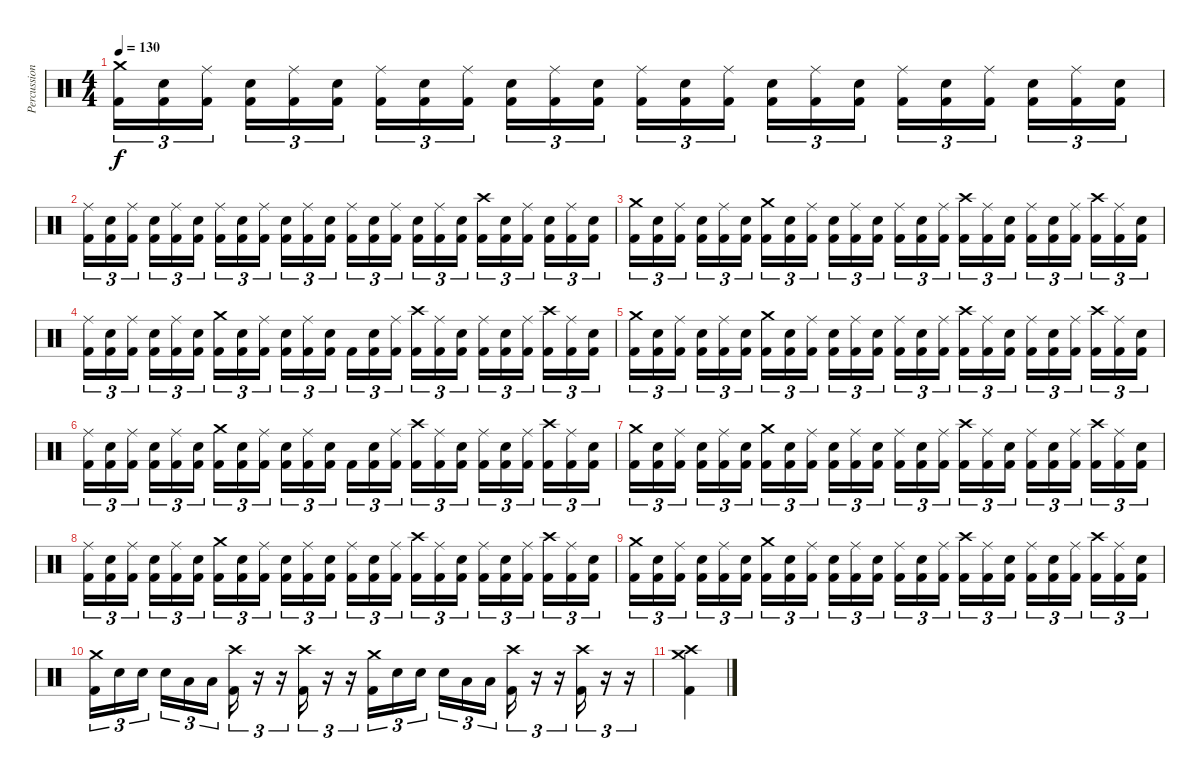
\track ("Percussion" "Percussion") {instrument percussion}
\staff {score}
\articulation defaults
\ts (4 4)
\tempo 130
\clef neutral
\ks c
("Kick (hit) 2" "Crash medium (hit)").16{tu (3 2) dy f} ("Kick (hit) 2" "Electric Snare (hit)").16{tu (3 2)} ("Kick (hit) 2" "Ride (middle)").16{tu (3 2)} ("Kick (hit) 2" "Electric Snare (hit)").16{tu (3 2)} ("Kick (hit) 2" "Ride (middle)").16{tu (3 2)} ("Kick (hit) 2" "Electric Snare (hit)").16{tu (3 2)} ("Kick (hit) 2" "Ride (middle)").16{tu (3 2)} ("Kick (hit) 2" "Electric Snare (hit)").16{tu (3 2)} ("Kick (hit) 2" "Ride (middle)").16{tu (3 2)} ("Kick (hit) 2" "Electric Snare (hit)").16{tu (3 2)} ("Kick (hit) 2" "Ride (middle)").16{tu (3 2)} ("Kick (hit) 2" "Electric Snare (hit)").16{tu (3 2)} ("Kick (hit) 2" "Ride (middle)").16{tu (3 2)} ("Kick (hit) 2" "Electric Snare (hit)").16{tu (3 2)} ("Kick (hit) 2" "Ride (middle)").16{tu (3 2)} ("Kick (hit) 2" "Electric Snare (hit)").16{tu (3 2)} ("Kick (hit) 2" "Ride (middle)").16{tu (3 2)} ("Kick (hit) 2" "Electric Snare (hit)").16{tu (3 2)} ("Kick (hit) 2" "Ride (middle)").16{tu (3 2)} ("Kick (hit) 2" "Electric Snare (hit)").16{tu (3 2)} ("Kick (hit) 2" "Ride (middle)").16{tu (3 2)} ("Kick (hit) 2" "Electric Snare (hit)").16{tu (3 2)} ("Kick (hit) 2" "Ride (middle)").16{tu (3 2)} ("Kick (hit) 2" "Electric Snare (hit)").16{tu (3 2)} |
("Kick (hit) 2" "Ride (middle)").16{tu (3 2)} ("Kick (hit) 2" "Electric Snare (hit)").16{tu (3 2)} ("Kick (hit) 2" "Ride (middle)").16{tu (3 2)} ("Kick (hit) 2" "Electric Snare (hit)").16{tu (3 2)} ("Kick (hit) 2" "Ride (middle)").16{tu (3 2)} ("Kick (hit) 2" "Electric Snare (hit)").16{tu (3 2)} ("Kick (hit) 2" "Ride (middle)").16{tu (3 2)} ("Kick (hit) 2" "Electric Snare (hit)").16{tu (3 2)} ("Kick (hit) 2" "Ride (middle)").16{tu (3 2)} ("Kick (hit) 2" "Electric Snare (hit)").16{tu (3 2)} ("Kick (hit) 2" "Ride (middle)").16{tu (3 2)} ("Kick (hit) 2" "Electric Snare (hit)").16{tu (3 2)} ("Kick (hit) 2" "Ride (middle)").16{tu (3 2)} ("Kick (hit) 2" "Electric Snare (hit)").16{tu (3 2)} ("Kick (hit) 2" "Ride (middle)").16{tu (3 2)} ("Kick (hit) 2" "Electric Snare (hit)").16{tu (3 2)} ("Kick (hit) 2" "Ride (middle)").16{tu (3 2)} ("Kick (hit) 2" "Electric Snare (hit)").16{tu (3 2)} ("Kick (hit) 2" "Crash high (hit)").16{tu (3 2)} ("Kick (hit) 2" "Electric Snare (hit)").16{tu (3 2)} ("Kick (hit) 2" "Ride (middle)").16{tu (3 2)} ("Kick (hit) 2" "Electric Snare (hit)").16{tu (3 2)} ("Kick (hit) 2" "Ride (middle)").16{tu (3 2)} ("Kick (hit) 2" "Electric Snare (hit)").16{tu (3 2)} |
("Kick (hit) 2" "Crash medium (hit)").16{tu (3 2)} ("Kick (hit) 2" "Electric Snare (hit)").16{tu (3 2)} ("Kick (hit) 2" "Ride (middle)").16{tu (3 2)} ("Kick (hit) 2" "Electric Snare (hit)").16{tu (3 2)} ("Kick (hit) 2" "Ride (middle)").16{tu (3 2)} ("Kick (hit) 2" "Electric Snare (hit)").16{tu (3 2)} ("Kick (hit) 2" "Crash medium (hit)").16{tu (3 2)} ("Kick (hit) 2" "Electric Snare (hit)").16{tu (3 2)} ("Kick (hit) 2" "Ride (middle)").16{tu (3 2)} ("Kick (hit) 2" "Electric Snare (hit)").16{tu (3 2)} ("Kick (hit) 2" "Ride (middle)").16{tu (3 2)} ("Kick (hit) 2" "Electric Snare (hit)").16{tu (3 2)} ("Kick (hit) 2" "Ride (middle)").16{tu (3 2)} ("Kick (hit) 2" "Electric Snare (hit)").16{tu (3 2)} ("Kick (hit) 2" "Ride (middle)").16{tu (3 2)} ("Kick (hit) 2" "Crash high (hit)").16{tu (3 2)} ("Kick (hit) 2" "Ride (middle)").16{tu (3 2)} ("Kick (hit) 2" "Electric Snare (hit)").16{tu (3 2)} ("Kick (hit) 2" "Ride (middle)").16{tu (3 2)} ("Kick (hit) 2" "Electric Snare (hit)").16{tu (3 2)} ("Kick (hit) 2" "Ride (middle)").16{tu (3 2)} ("Kick (hit) 2" "Crash high (hit)").16{tu (3 2)} ("Kick (hit) 2" "Ride (middle)").16{tu (3 2)} ("Kick (hit) 2" "Electric Snare (hit)").16{tu (3 2)} |
("Kick (hit) 2" "Ride (middle)").16{tu (3 2)} ("Kick (hit) 2" "Electric Snare (hit)").16{tu (3 2)} ("Kick (hit) 2" "Ride (middle)").16{tu (3 2)} ("Kick (hit) 2" "Electric Snare (hit)").16{tu (3 2)} ("Kick (hit) 2" "Ride (middle)").16{tu (3 2)} ("Kick (hit) 2" "Electric Snare (hit)").16{tu (3 2)} ("Kick (hit) 2" "Crash medium (hit)").16{tu (3 2)} ("Kick (hit) 2" "Electric Snare (hit)").16{tu (3 2)} ("Kick (hit) 2" "Ride (middle)").16{tu (3 2)} ("Kick (hit) 2" "Electric Snare (hit)").16{tu (3 2)} ("Kick (hit) 2" "Ride (middle)").16{tu (3 2)} ("Kick (hit) 2" "Electric Snare (hit)").16{tu (3 2)} "Kick (hit) 2".16{tu (3 2)} ("Kick (hit) 2" "Electric Snare (hit)").16{tu (3 2)} ("Kick (hit) 2" "Ride (middle)").16{tu (3 2)} ("Kick (hit) 2" "Crash high (hit)").16{tu (3 2)} ("Kick (hit) 2" "Ride (middle)").16{tu (3 2)} ("Kick (hit) 2" "Electric Snare (hit)").16{tu (3 2)} ("Kick (hit) 2" "Ride (middle)").16{tu (3 2)} ("Kick (hit) 2" "Electric Snare (hit)").16{tu (3 2)} ("Kick (hit) 2" "Ride (middle)").16{tu (3 2)} ("Kick (hit) 2" "Crash high (hit)").16{tu (3 2)} ("Kick (hit) 2" "Ride (middle)").16{tu (3 2)} ("Kick (hit) 2" "Electric Snare (hit)").16{tu (3 2)} |
("Kick (hit) 2" "Crash medium (hit)").16{tu (3 2)} ("Kick (hit) 2" "Electric Snare (hit)").16{tu (3 2)} ("Kick (hit) 2" "Ride (middle)").16{tu (3 2)} ("Kick (hit) 2" "Electric Snare (hit)").16{tu (3 2)} ("Kick (hit) 2" "Ride (middle)").16{tu (3 2)} ("Kick (hit) 2" "Electric Snare (hit)").16{tu (3 2)} ("Kick (hit) 2" "Crash medium (hit)").16{tu (3 2)} ("Kick (hit) 2" "Electric Snare (hit)").16{tu (3 2)} ("Kick (hit) 2" "Ride (middle)").16{tu (3 2)} ("Kick (hit) 2" "Electric Snare (hit)").16{tu (3 2)} ("Kick (hit) 2" "Ride (middle)").16{tu (3 2)} ("Kick (hit) 2" "Electric Snare (hit)").16{tu (3 2)} ("Kick (hit) 2" "Ride (middle)").16{tu (3 2)} ("Kick (hit) 2" "Electric Snare (hit)").16{tu (3 2)} ("Kick (hit) 2" "Ride (middle)").16{tu (3 2)} ("Kick (hit) 2" "Crash high (hit)").16{tu (3 2)} ("Kick (hit) 2" "Ride (middle)").16{tu (3 2)} ("Kick (hit) 2" "Electric Snare (hit)").16{tu (3 2)} ("Kick (hit) 2" "Ride (middle)").16{tu (3 2)} ("Kick (hit) 2" "Electric Snare (hit)").16{tu (3 2)} ("Kick (hit) 2" "Ride (middle)").16{tu (3 2)} ("Kick (hit) 2" "Crash high (hit)").16{tu (3 2)} ("Kick (hit) 2" "Ride (middle)").16{tu (3 2)} ("Kick (hit) 2" "Electric Snare (hit)").16{tu (3 2)} |
("Kick (hit) 2" "Ride (middle)").16{tu (3 2)} ("Kick (hit) 2" "Electric Snare (hit)").16{tu (3 2)} ("Kick (hit) 2" "Ride (middle)").16{tu (3 2)} ("Kick (hit) 2" "Electric Snare (hit)").16{tu (3 2)} ("Kick (hit) 2" "Ride (middle)").16{tu (3 2)} ("Kick (hit) 2" "Electric Snare (hit)").16{tu (3 2)} ("Kick (hit) 2" "Crash medium (hit)").16{tu (3 2)} ("Kick (hit) 2" "Electric Snare (hit)").16{tu (3 2)} ("Kick (hit) 2" "Ride (middle)").16{tu (3 2)} ("Kick (hit) 2" "Electric Snare (hit)").16{tu (3 2)} ("Kick (hit) 2" "Ride (middle)").16{tu (3 2)} ("Kick (hit) 2" "Electric Snare (hit)").16{tu (3 2)} "Kick (hit) 2".16{tu (3 2)} ("Kick (hit) 2" "Electric Snare (hit)").16{tu (3 2)} ("Kick (hit) 2" "Ride (middle)").16{tu (3 2)} ("Kick (hit) 2" "Crash high (hit)").16{tu (3 2)} ("Kick (hit) 2" "Ride (middle)").16{tu (3 2)} ("Kick (hit) 2" "Electric Snare (hit)").16{tu (3 2)} ("Kick (hit) 2" "Ride (middle)").16{tu (3 2)} ("Kick (hit) 2" "Electric Snare (hit)").16{tu (3 2)} ("Kick (hit) 2" "Ride (middle)").16{tu (3 2)} ("Kick (hit) 2" "Crash high (hit)").16{tu (3 2)} ("Kick (hit) 2" "Ride (middle)").16{tu (3 2)} ("Kick (hit) 2" "Electric Snare (hit)").16{tu (3 2)} |
("Kick (hit) 2" "Crash medium (hit)").16{tu (3 2)} ("Kick (hit) 2" "Electric Snare (hit)").16{tu (3 2)} ("Kick (hit) 2" "Ride (middle)").16{tu (3 2)} ("Kick (hit) 2" "Electric Snare (hit)").16{tu (3 2)} ("Kick (hit) 2" "Ride (middle)").16{tu (3 2)} ("Kick (hit) 2" "Electric Snare (hit)").16{tu (3 2)} ("Kick (hit) 2" "Crash medium (hit)").16{tu (3 2)} ("Kick (hit) 2" "Electric Snare (hit)").16{tu (3 2)} ("Kick (hit) 2" "Ride (middle)").16{tu (3 2)} ("Kick (hit) 2" "Electric Snare (hit)").16{tu (3 2)} ("Kick (hit) 2" "Ride (middle)").16{tu (3 2)} ("Kick (hit) 2" "Electric Snare (hit)").16{tu (3 2)} ("Kick (hit) 2" "Ride (middle)").16{tu (3 2)} ("Kick (hit) 2" "Electric Snare (hit)").16{tu (3 2)} ("Kick (hit) 2" "Ride (middle)").16{tu (3 2)} ("Kick (hit) 2" "Crash high (hit)").16{tu (3 2)} ("Kick (hit) 2" "Ride (middle)").16{tu (3 2)} ("Kick (hit) 2" "Electric Snare (hit)").16{tu (3 2)} ("Kick (hit) 2" "Ride (middle)").16{tu (3 2)} ("Kick (hit) 2" "Electric Snare (hit)").16{tu (3 2)} ("Kick (hit) 2" "Ride (middle)").16{tu (3 2)} ("Kick (hit) 2" "Crash high (hit)").16{tu (3 2)} ("Kick (hit) 2" "Ride (middle)").16{tu (3 2)} ("Kick (hit) 2" "Electric Snare (hit)").16{tu (3 2)} |
("Kick (hit) 2" "Ride (middle)").16{tu (3 2)} ("Kick (hit) 2" "Electric Snare (hit)").16{tu (3 2)} ("Kick (hit) 2" "Ride (middle)").16{tu (3 2)} ("Kick (hit) 2" "Electric Snare (hit)").16{tu (3 2)} ("Kick (hit) 2" "Ride (middle)").16{tu (3 2)} ("Kick (hit) 2" "Electric Snare (hit)").16{tu (3 2)} ("Kick (hit) 2" "Crash medium (hit)").16{tu (3 2)} ("Kick (hit) 2" "Electric Snare (hit)").16{tu (3 2)} ("Kick (hit) 2" "Ride (middle)").16{tu (3 2)} ("Kick (hit) 2" "Electric Snare (hit)").16{tu (3 2)} ("Kick (hit) 2" "Ride (middle)").16{tu (3 2)} ("Kick (hit) 2" "Electric Snare (hit)").16{tu (3 2)} ("Kick (hit) 2" "Ride (middle)").16{tu (3 2)} ("Kick (hit) 2" "Electric Snare (hit)").16{tu (3 2)} ("Kick (hit) 2" "Ride (middle)").16{tu (3 2)} ("Kick (hit) 2" "Crash high (hit)").16{tu (3 2)} ("Kick (hit) 2" "Ride (middle)").16{tu (3 2)} ("Kick (hit) 2" "Electric Snare (hit)").16{tu (3 2)} ("Kick (hit) 2" "Ride (middle)").16{tu (3 2)} ("Kick (hit) 2" "Electric Snare (hit)").16{tu (3 2)} ("Kick (hit) 2" "Ride (middle)").16{tu (3 2)} ("Kick (hit) 2" "Crash high (hit)").16{tu (3 2)} ("Kick (hit) 2" "Ride (middle)").16{tu (3 2)} ("Kick (hit) 2" "Electric Snare (hit)").16{tu (3 2)} |
("Kick (hit) 2" "Crash medium (hit)").16{tu (3 2)} ("Kick (hit) 2" "Electric Snare (hit)").16{tu (3 2)} ("Kick (hit) 2" "Ride (middle)").16{tu (3 2)} ("Kick (hit) 2" "Electric Snare (hit)").16{tu (3 2)} ("Kick (hit) 2" "Ride (middle)").16{tu (3 2)} ("Kick (hit) 2" "Electric Snare (hit)").16{tu (3 2)} ("Kick (hit) 2" "Crash medium (hit)").16{tu (3 2)} ("Kick (hit) 2" "Electric Snare (hit)").16{tu (3 2)} ("Kick (hit) 2" "Ride (middle)").16{tu (3 2)} ("Kick (hit) 2" "Electric Snare (hit)").16{tu (3 2)} ("Kick (hit) 2" "Ride (middle)").16{tu (3 2)} ("Kick (hit) 2" "Electric Snare (hit)").16{tu (3 2)} ("Kick (hit) 2" "Ride (middle)").16{tu (3 2)} ("Kick (hit) 2" "Electric Snare (hit)").16{tu (3 2)} ("Kick (hit) 2" "Ride (middle)").16{tu (3 2)} ("Kick (hit) 2" "Crash high (hit)").16{tu (3 2)} ("Kick (hit) 2" "Ride (middle)").16{tu (3 2)} ("Kick (hit) 2" "Electric Snare (hit)").16{tu (3 2)} ("Kick (hit) 2" "Ride (middle)").16{tu (3 2)} ("Kick (hit) 2" "Electric Snare (hit)").16{tu (3 2)} ("Kick (hit) 2" "Ride (middle)").16{tu (3 2)} ("Kick (hit) 2" "Crash high (hit)").16{tu (3 2)} ("Kick (hit) 2" "Ride (middle)").16{tu (3 2)} ("Kick (hit) 2" "Electric Snare (hit)").16{tu (3 2)} |
("Kick (hit) 2" "Crash medium (hit)").16{tu (3 2)} "Electric Snare (hit)".16{tu (3 2)} "Electric Snare (hit)".16{tu (3 2)} "Electric Snare (hit)".16{tu (3 2)} "Low Tom (hit)".16{tu (3 2)} "Low Tom (hit)".16{tu (3 2)} ("Kick (hit) 2" "Crash high (hit)").16{tu (3 2)} r.16{tu (3 2)} r.16{tu (3 2)} ("Kick (hit) 2" "Crash high (hit)").16{tu (3 2)} r.16{tu (3 2)} r.16{tu (3 2)} ("Kick (hit) 2" "Crash medium (hit)").16{tu (3 2)} "Electric Snare (hit)".16{tu (3 2)} "Electric Snare (hit)".16{tu (3 2)} "Electric Snare (hit)".16{tu (3 2)} "Low Tom (hit)".16{tu (3 2)} "Low Tom (hit)".16{tu (3 2)} ("Kick (hit) 2" "Crash high (hit)").16{tu (3 2)} r.16{tu (3 2)} r.16{tu (3 2)} ("Kick (hit) 2" "Crash high (hit)").16{tu (3 2)} r.16{tu (3 2)} r.16{tu (3 2)} |
("Kick (hit) 2" "Crash high (hit)" "Crash medium (hit)").4
